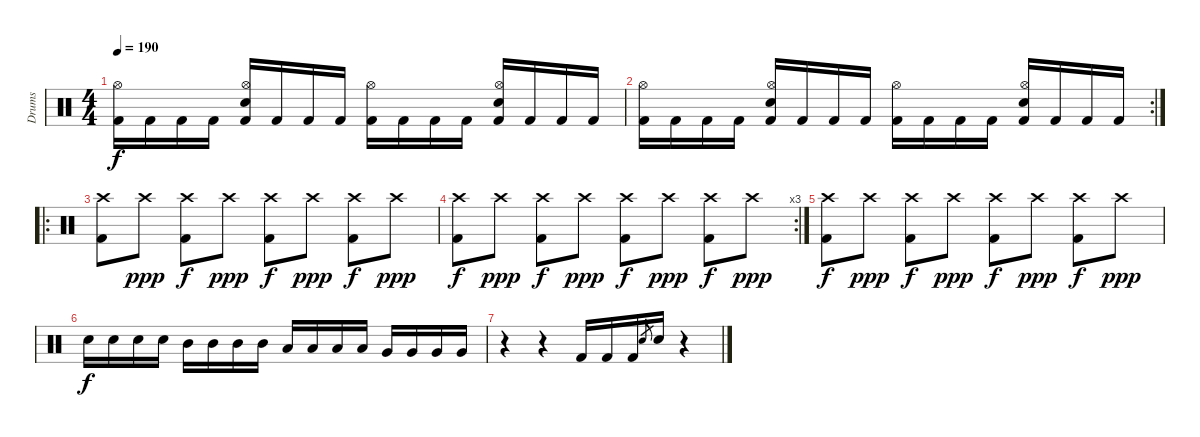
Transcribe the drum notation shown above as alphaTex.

\track ("Drums" "Drums") {instrument percussion}
\staff {score}
\articulation defaults
\ts (4 4)
\tempo 190
\clef neutral
\ks c
("Kick (hit) 2" "Hi-Hat (open)").16{dy f} "Kick (hit) 2".16 "Kick (hit) 2".16 "Kick (hit) 2".16 ("Kick (hit) 2" "Hi-Hat (open)" "Electric Snare (hit)").16 "Kick (hit) 2".16 "Kick (hit) 2".16 "Kick (hit) 2".16 ("Kick (hit) 2" "Hi-Hat (open)").16 "Kick (hit) 2".16 "Kick (hit) 2".16 "Kick (hit) 2".16 ("Kick (hit) 2" "Hi-Hat (open)" "Electric Snare (hit)").16 "Kick (hit) 2".16 "Kick (hit) 2".16 "Kick (hit) 2".16 |
\rc 2
("Kick (hit) 2" "Hi-Hat (open)").16 "Kick (hit) 2".16 "Kick (hit) 2".16 "Kick (hit) 2".16 ("Kick (hit) 2" "Hi-Hat (open)" "Electric Snare (hit)").16 "Kick (hit) 2".16 "Kick (hit) 2".16 "Kick (hit) 2".16 ("Kick (hit) 2" "Hi-Hat (open)").16 "Kick (hit) 2".16 "Kick (hit) 2".16 "Kick (hit) 2".16 ("Kick (hit) 2" "Hi-Hat (open)" "Electric Snare (hit)").16 "Kick (hit) 2".16 "Kick (hit) 2".16 "Kick (hit) 2".16 |
\ro
("Crash high (hit)" "Kick (hit) 2").8 "Crash high (hit)".8{dy ppp} ("Crash high (hit)" "Kick (hit) 2").8{dy f} "Crash high (hit)".8{dy ppp} ("Crash high (hit)" "Kick (hit) 2").8{dy f} "Crash high (hit)".8{dy ppp} ("Crash high (hit)" "Kick (hit) 2").8{dy f} "Crash high (hit)".8{dy ppp} |
\rc 3
("Crash high (hit)" "Kick (hit) 2").8{dy f} "Crash high (hit)".8{dy ppp} ("Crash high (hit)" "Kick (hit) 2").8{dy f} "Crash high (hit)".8{dy ppp} ("Crash high (hit)" "Kick (hit) 2").8{dy f} "Crash high (hit)".8{dy ppp} ("Crash high (hit)" "Kick (hit) 2").8{dy f} "Crash high (hit)".8{dy ppp} |
("Crash high (hit)" "Kick (hit) 2").8{dy f} "Crash high (hit)".8{dy ppp} ("Crash high (hit)" "Kick (hit) 2").8{dy f} "Crash high (hit)".8{dy ppp} ("Crash high (hit)" "Kick (hit) 2").8{dy f} "Crash high (hit)".8{dy ppp} ("Crash high (hit)" "Kick (hit) 2").8{dy f} "Crash high (hit)".8{dy ppp} |
"Electric Snare (hit)".16{dy f} "Electric Snare (hit)".16 "Electric Snare (hit)".16 "Electric Snare (hit)".16 "Mid Tom (hit)".16 "Mid Tom (hit)".16 "Mid Tom (hit)".16 "Mid Tom (hit)".16 "Low Tom (hit)".16 "Low Tom (hit)".16 "Low Tom (hit)".16 "Low Tom (hit)".16 "Very Low Tom (hit)".16 "Very Low Tom (hit)".16 "Very Low Tom (hit)".16 "Very Low Tom (hit)".16 |
r.4 r.4 "Kick (hit) 2".16 "Kick (hit) 2".16 "Kick (hit) 2".16 "Electric Snare (hit)".8{gr} "Electric Snare (hit)".16 r.4
